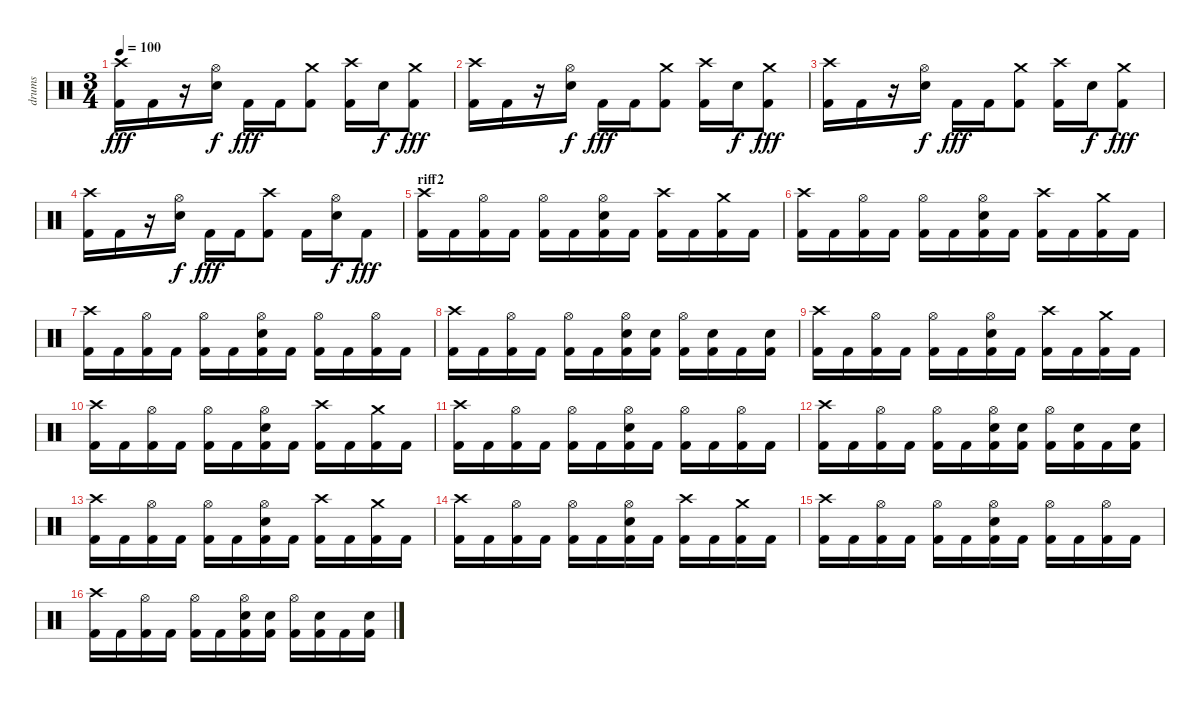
\track ("drums" "drums") {instrument percussion}
\staff {score}
\articulation defaults
\ts (3 4)
\tempo 100
\clef neutral
\ks c
("Crash high (hit)" "Kick (hit) 2").16{dy fff} "Kick (hit) 2".16 r.16 ("Hi-Hat (open)" "Snare (hit) 2").16{dy f} "Kick (hit) 2".16{dy fff} "Kick (hit) 2".16 ("Crash medium (hit)" "Kick (hit) 2").8 ("Crash high (hit)" "Kick (hit) 2").16 "Snare (hit) 2".16{dy f} ("Crash medium (hit)" "Kick (hit) 2").8{dy fff} |
("Crash high (hit)" "Kick (hit) 2").16 "Kick (hit) 2".16 r.16 ("Hi-Hat (open)" "Snare (hit) 2").16{dy f} "Kick (hit) 2".16{dy fff} "Kick (hit) 2".16 ("Crash medium (hit)" "Kick (hit) 2").8 ("Crash high (hit)" "Kick (hit) 2").16 "Snare (hit) 2".16{dy f} ("Crash medium (hit)" "Kick (hit) 2").8{dy fff} |
("Crash high (hit)" "Kick (hit) 2").16 "Kick (hit) 2".16 r.16 ("Hi-Hat (open)" "Snare (hit) 2").16{dy f} "Kick (hit) 2".16{dy fff} "Kick (hit) 2".16 ("Crash medium (hit)" "Kick (hit) 2").8 ("Crash high (hit)" "Kick (hit) 2").16 "Snare (hit) 2".16{dy f} ("Crash medium (hit)" "Kick (hit) 2").8{dy fff} |
("Crash high (hit)" "Kick (hit) 2").16 "Kick (hit) 2".16 r.16 ("Hi-Hat (open)" "Snare (hit) 2").16{dy f} "Kick (hit) 2".16{dy fff} "Kick (hit) 2".16 ("Crash high (hit)" "Kick (hit) 2").8 "Kick (hit) 2".16 ("Hi-Hat (open)" "Snare (hit) 2").16{dy f} "Kick (hit) 2".8{dy fff} |
\section ("" "riff2")
("Crash high (hit)" "Kick (hit) 2").16 "Kick (hit) 2".16 ("Hi-Hat (open)" "Kick (hit) 2").16 "Kick (hit) 2".16 ("Hi-Hat (open)" "Kick (hit) 2").16 "Kick (hit) 2".16 ("Hi-Hat (open)" "Snare (hit) 2" "Kick (hit) 2").16 "Kick (hit) 2".16 ("Crash high (hit)" "Kick (hit) 2").16 "Kick (hit) 2".16 ("Crash medium (hit)" "Kick (hit) 2").16 "Kick (hit) 2".16 |
("Crash high (hit)" "Kick (hit) 2").16 "Kick (hit) 2".16 ("Hi-Hat (open)" "Kick (hit) 2").16 "Kick (hit) 2".16 ("Hi-Hat (open)" "Kick (hit) 2").16 "Kick (hit) 2".16 ("Hi-Hat (open)" "Snare (hit) 2" "Kick (hit) 2").16 "Kick (hit) 2".16 ("Crash high (hit)" "Kick (hit) 2").16 "Kick (hit) 2".16 ("Crash medium (hit)" "Kick (hit) 2").16 "Kick (hit) 2".16 |
("Crash high (hit)" "Kick (hit) 2").16 "Kick (hit) 2".16 ("Hi-Hat (open)" "Kick (hit) 2").16 "Kick (hit) 2".16 ("Hi-Hat (open)" "Kick (hit) 2").16 "Kick (hit) 2".16 ("Hi-Hat (open)" "Snare (hit) 2" "Kick (hit) 2").16 "Kick (hit) 2".16 ("Hi-Hat (open)" "Kick (hit) 2").16 "Kick (hit) 2".16 ("Hi-Hat (open)" "Kick (hit) 2").16 "Kick (hit) 2".16 |
("Crash high (hit)" "Kick (hit) 2").16 "Kick (hit) 2".16 ("Hi-Hat (open)" "Kick (hit) 2").16 "Kick (hit) 2".16 ("Hi-Hat (open)" "Kick (hit) 2").16 "Kick (hit) 2".16 ("Hi-Hat (open)" "Snare (hit) 2" "Kick (hit) 2").16 ("Snare (hit) 2" "Kick (hit) 2").16 ("Hi-Hat (open)" "Kick (hit) 2").16 ("Snare (hit) 2" "Kick (hit) 2").16 "Kick (hit) 2".16 ("Snare (hit) 2" "Kick (hit) 2").16 |
("Crash high (hit)" "Kick (hit) 2").16 "Kick (hit) 2".16 ("Hi-Hat (open)" "Kick (hit) 2").16 "Kick (hit) 2".16 ("Hi-Hat (open)" "Kick (hit) 2").16 "Kick (hit) 2".16 ("Hi-Hat (open)" "Snare (hit) 2" "Kick (hit) 2").16 "Kick (hit) 2".16 ("Crash high (hit)" "Kick (hit) 2").16 "Kick (hit) 2".16 ("Crash medium (hit)" "Kick (hit) 2").16 "Kick (hit) 2".16 |
("Crash high (hit)" "Kick (hit) 2").16 "Kick (hit) 2".16 ("Hi-Hat (open)" "Kick (hit) 2").16 "Kick (hit) 2".16 ("Hi-Hat (open)" "Kick (hit) 2").16 "Kick (hit) 2".16 ("Hi-Hat (open)" "Snare (hit) 2" "Kick (hit) 2").16 "Kick (hit) 2".16 ("Crash high (hit)" "Kick (hit) 2").16 "Kick (hit) 2".16 ("Crash medium (hit)" "Kick (hit) 2").16 "Kick (hit) 2".16 |
("Crash high (hit)" "Kick (hit) 2").16 "Kick (hit) 2".16 ("Hi-Hat (open)" "Kick (hit) 2").16 "Kick (hit) 2".16 ("Hi-Hat (open)" "Kick (hit) 2").16 "Kick (hit) 2".16 ("Hi-Hat (open)" "Snare (hit) 2" "Kick (hit) 2").16 "Kick (hit) 2".16 ("Hi-Hat (open)" "Kick (hit) 2").16 "Kick (hit) 2".16 ("Hi-Hat (open)" "Kick (hit) 2").16 "Kick (hit) 2".16 |
("Crash high (hit)" "Kick (hit) 2").16 "Kick (hit) 2".16 ("Hi-Hat (open)" "Kick (hit) 2").16 "Kick (hit) 2".16 ("Hi-Hat (open)" "Kick (hit) 2").16 "Kick (hit) 2".16 ("Hi-Hat (open)" "Snare (hit) 2" "Kick (hit) 2").16 ("Snare (hit) 2" "Kick (hit) 2").16 ("Hi-Hat (open)" "Kick (hit) 2").16 ("Snare (hit) 2" "Kick (hit) 2").16 "Kick (hit) 2".16 ("Snare (hit) 2" "Kick (hit) 2").16 |
("Crash high (hit)" "Kick (hit) 2").16 "Kick (hit) 2".16 ("Hi-Hat (open)" "Kick (hit) 2").16 "Kick (hit) 2".16 ("Hi-Hat (open)" "Kick (hit) 2").16 "Kick (hit) 2".16 ("Hi-Hat (open)" "Snare (hit) 2" "Kick (hit) 2").16 "Kick (hit) 2".16 ("Crash high (hit)" "Kick (hit) 2").16 "Kick (hit) 2".16 ("Crash medium (hit)" "Kick (hit) 2").16 "Kick (hit) 2".16 |
("Crash high (hit)" "Kick (hit) 2").16 "Kick (hit) 2".16 ("Hi-Hat (open)" "Kick (hit) 2").16 "Kick (hit) 2".16 ("Hi-Hat (open)" "Kick (hit) 2").16 "Kick (hit) 2".16 ("Hi-Hat (open)" "Snare (hit) 2" "Kick (hit) 2").16 "Kick (hit) 2".16 ("Crash high (hit)" "Kick (hit) 2").16 "Kick (hit) 2".16 ("Crash medium (hit)" "Kick (hit) 2").16 "Kick (hit) 2".16 |
("Crash high (hit)" "Kick (hit) 2").16 "Kick (hit) 2".16 ("Hi-Hat (open)" "Kick (hit) 2").16 "Kick (hit) 2".16 ("Hi-Hat (open)" "Kick (hit) 2").16 "Kick (hit) 2".16 ("Hi-Hat (open)" "Snare (hit) 2" "Kick (hit) 2").16 "Kick (hit) 2".16 ("Hi-Hat (open)" "Kick (hit) 2").16 "Kick (hit) 2".16 ("Hi-Hat (open)" "Kick (hit) 2").16 "Kick (hit) 2".16 |
("Crash high (hit)" "Kick (hit) 2").16 "Kick (hit) 2".16 ("Hi-Hat (open)" "Kick (hit) 2").16 "Kick (hit) 2".16 ("Hi-Hat (open)" "Kick (hit) 2").16 "Kick (hit) 2".16 ("Hi-Hat (open)" "Snare (hit) 2" "Kick (hit) 2").16 ("Snare (hit) 2" "Kick (hit) 2").16 ("Hi-Hat (open)" "Kick (hit) 2").16 ("Snare (hit) 2" "Kick (hit) 2").16 "Kick (hit) 2".16 ("Snare (hit) 2" "Kick (hit) 2").16
